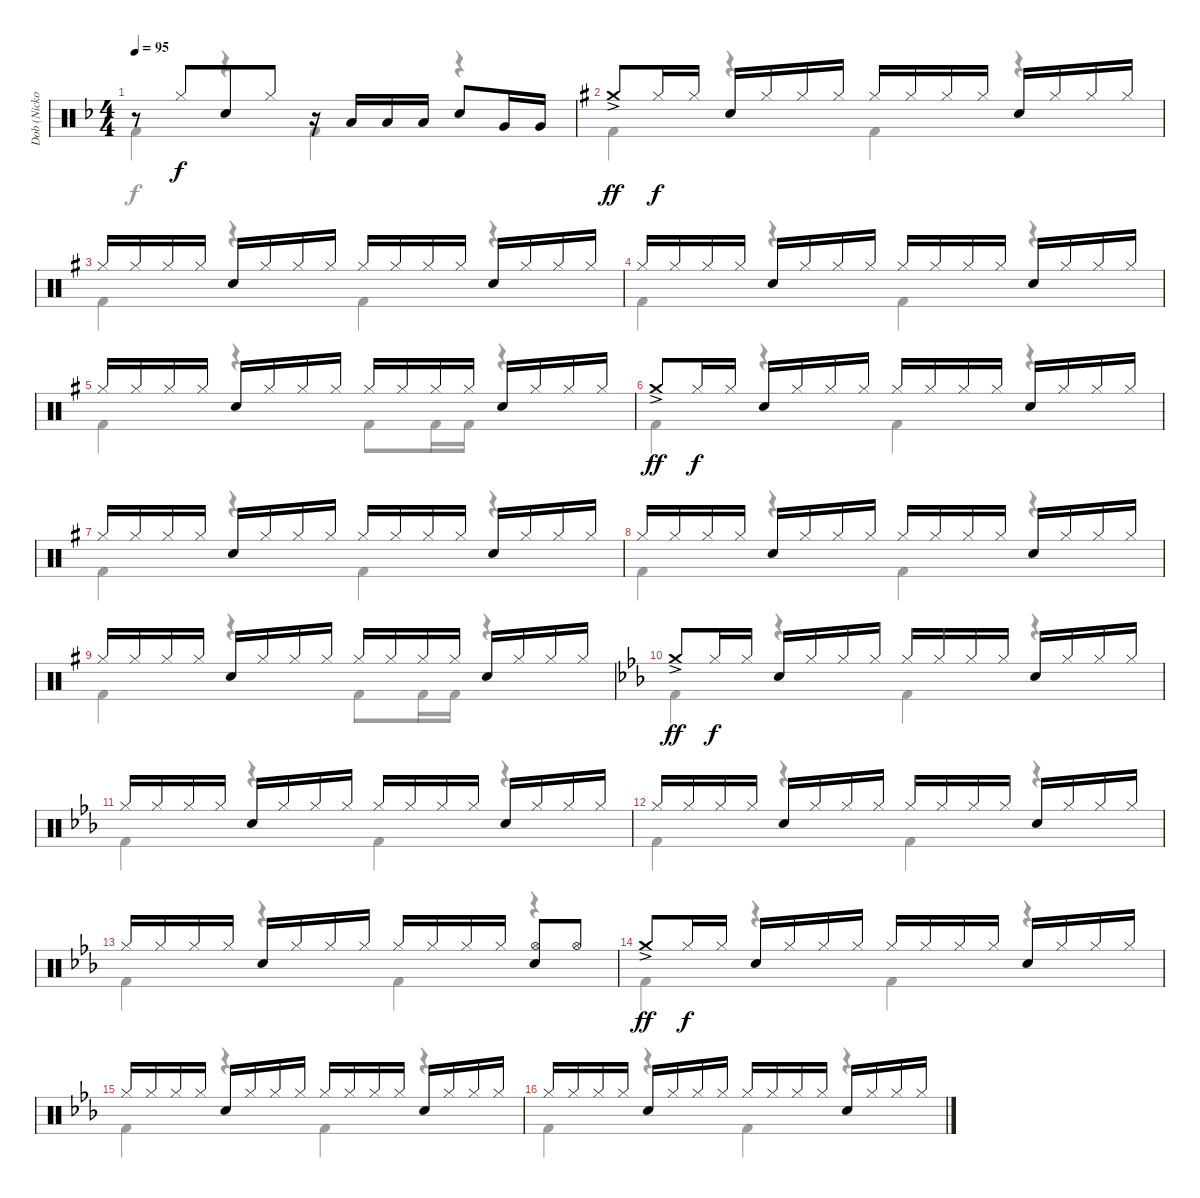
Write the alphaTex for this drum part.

\track ("Dob (Nicko McBrain)" "Dob (Nicko") {instrument percussion}
\staff {score}
\articulation defaults
\voice
\ts (4 4)
\tempo 95
\clef neutral
\ks f
r.8{dy f} "Hi-Hat (closed)".8{beam merge} "Electric Snare (hit)".8 "Hi-Hat (closed)".8 r.16 "Low Tom (hit)".16 "Low Tom (hit)".16 "Low Tom (hit)".16 "Electric Snare (hit)".8 "Very Low Tom (hit)".16 "Very Low Tom (hit)".16 |
\ks g "Crash medium (hit)"{ac}.8{dy ff} "Hi-Hat (closed)".16{dy f} "Hi-Hat (closed)".16 "Electric Snare (hit)".16 "Hi-Hat (closed)".16 "Hi-Hat (closed)".16 "Hi-Hat (closed)".16 "Hi-Hat (closed)".16 "Hi-Hat (closed)".16 "Hi-Hat (closed)".16 "Hi-Hat (closed)".16 "Electric Snare (hit)".16 "Hi-Hat (closed)".16 "Hi-Hat (closed)".16 "Hi-Hat (closed)".16
|
"Hi-Hat (closed)".16 "Hi-Hat (closed)".16 "Hi-Hat (closed)".16 "Hi-Hat (closed)".16 "Electric Snare (hit)".16 "Hi-Hat (closed)".16 "Hi-Hat (closed)".16 "Hi-Hat (closed)".16 "Hi-Hat (closed)".16 "Hi-Hat (closed)".16 "Hi-Hat (closed)".16 "Hi-Hat (closed)".16 "Electric Snare (hit)".16 "Hi-Hat (closed)".16 "Hi-Hat (closed)".16 "Hi-Hat (closed)".16 |
"Hi-Hat (closed)".16 "Hi-Hat (closed)".16 "Hi-Hat (closed)".16 "Hi-Hat (closed)".16 "Electric Snare (hit)".16 "Hi-Hat (closed)".16 "Hi-Hat (closed)".16 "Hi-Hat (closed)".16 "Hi-Hat (closed)".16 "Hi-Hat (closed)".16 "Hi-Hat (closed)".16 "Hi-Hat (closed)".16 "Electric Snare (hit)".16 "Hi-Hat (closed)".16 "Hi-Hat (closed)".16 "Hi-Hat (closed)".16 |
"Hi-Hat (closed)".16 "Hi-Hat (closed)".16 "Hi-Hat (closed)".16 "Hi-Hat (closed)".16 "Electric Snare (hit)".16 "Hi-Hat (closed)".16 "Hi-Hat (closed)".16 "Hi-Hat (closed)".16 "Hi-Hat (closed)".16 "Hi-Hat (closed)".16 "Hi-Hat (closed)".16 "Hi-Hat (closed)".16 "Electric Snare (hit)".16 "Hi-Hat (closed)".16 "Hi-Hat (closed)".16 "Hi-Hat (closed)".16 |
"Crash medium (hit)"{ac}.8{dy ff} "Hi-Hat (closed)".16{dy f} "Hi-Hat (closed)".16 "Electric Snare (hit)".16 "Hi-Hat (closed)".16 "Hi-Hat (closed)".16 "Hi-Hat (closed)".16 "Hi-Hat (closed)".16 "Hi-Hat (closed)".16 "Hi-Hat (closed)".16 "Hi-Hat (closed)".16 "Electric Snare (hit)".16 "Hi-Hat (closed)".16 "Hi-Hat (closed)".16 "Hi-Hat (closed)".16 |
"Hi-Hat (closed)".16 "Hi-Hat (closed)".16 "Hi-Hat (closed)".16 "Hi-Hat (closed)".16 "Electric Snare (hit)".16 "Hi-Hat (closed)".16 "Hi-Hat (closed)".16 "Hi-Hat (closed)".16 "Hi-Hat (closed)".16 "Hi-Hat (closed)".16 "Hi-Hat (closed)".16 "Hi-Hat (closed)".16 "Electric Snare (hit)".16 "Hi-Hat (closed)".16 "Hi-Hat (closed)".16 "Hi-Hat (closed)".16 |
"Hi-Hat (closed)".16 "Hi-Hat (closed)".16 "Hi-Hat (closed)".16 "Hi-Hat (closed)".16 "Electric Snare (hit)".16 "Hi-Hat (closed)".16 "Hi-Hat (closed)".16 "Hi-Hat (closed)".16 "Hi-Hat (closed)".16 "Hi-Hat (closed)".16 "Hi-Hat (closed)".16 "Hi-Hat (closed)".16 "Electric Snare (hit)".16 "Hi-Hat (closed)".16 "Hi-Hat (closed)".16 "Hi-Hat (closed)".16 |
"Hi-Hat (closed)".16 "Hi-Hat (closed)".16 "Hi-Hat (closed)".16 "Hi-Hat (closed)".16 "Electric Snare (hit)".16 "Hi-Hat (closed)".16 "Hi-Hat (closed)".16 "Hi-Hat (closed)".16 "Hi-Hat (closed)".16 "Hi-Hat (closed)".16 "Hi-Hat (closed)".16 "Hi-Hat (closed)".16 "Electric Snare (hit)".16 "Hi-Hat (closed)".16 "Hi-Hat (closed)".16 "Hi-Hat (closed)".16 |
\ks eb "Crash medium (hit)"{ac}.8{dy ff} "Hi-Hat (closed)".16{dy f} "Hi-Hat (closed)".16 "Electric Snare (hit)".16 "Hi-Hat (closed)".16 "Hi-Hat (closed)".16 "Hi-Hat (closed)".16 "Hi-Hat (closed)".16 "Hi-Hat (closed)".16 "Hi-Hat (closed)".16 "Hi-Hat (closed)".16 "Electric Snare (hit)".16 "Hi-Hat (closed)".16 "Hi-Hat (closed)".16 "Hi-Hat (closed)".16
|
"Hi-Hat (closed)".16 "Hi-Hat (closed)".16 "Hi-Hat (closed)".16 "Hi-Hat (closed)".16 "Electric Snare (hit)".16 "Hi-Hat (closed)".16 "Hi-Hat (closed)".16 "Hi-Hat (closed)".16 "Hi-Hat (closed)".16 "Hi-Hat (closed)".16 "Hi-Hat (closed)".16 "Hi-Hat (closed)".16 "Electric Snare (hit)".16 "Hi-Hat (closed)".16 "Hi-Hat (closed)".16 "Hi-Hat (closed)".16 |
"Hi-Hat (closed)".16 "Hi-Hat (closed)".16 "Hi-Hat (closed)".16 "Hi-Hat (closed)".16 "Electric Snare (hit)".16 "Hi-Hat (closed)".16 "Hi-Hat (closed)".16 "Hi-Hat (closed)".16 "Hi-Hat (closed)".16 "Hi-Hat (closed)".16 "Hi-Hat (closed)".16 "Hi-Hat (closed)".16 "Electric Snare (hit)".16 "Hi-Hat (closed)".16 "Hi-Hat (closed)".16 "Hi-Hat (closed)".16 |
"Hi-Hat (closed)".16 "Hi-Hat (closed)".16 "Hi-Hat (closed)".16 "Hi-Hat (closed)".16 "Electric Snare (hit)".16 "Hi-Hat (closed)".16 "Hi-Hat (closed)".16 "Hi-Hat (closed)".16 "Hi-Hat (closed)".16 "Hi-Hat (closed)".16 "Hi-Hat (closed)".16 "Hi-Hat (closed)".16 ("Hi-Hat (open)" "Electric Snare (hit)").8 "Hi-Hat (open)".8 |
"Crash medium (hit)"{ac}.8{dy ff} "Hi-Hat (closed)".16{dy f} "Hi-Hat (closed)".16 "Electric Snare (hit)".16 "Hi-Hat (closed)".16 "Hi-Hat (closed)".16 "Hi-Hat (closed)".16 "Hi-Hat (closed)".16 "Hi-Hat (closed)".16 "Hi-Hat (closed)".16 "Hi-Hat (closed)".16 "Electric Snare (hit)".16 "Hi-Hat (closed)".16 "Hi-Hat (closed)".16 "Hi-Hat (closed)".16 |
"Hi-Hat (closed)".16 "Hi-Hat (closed)".16 "Hi-Hat (closed)".16 "Hi-Hat (closed)".16 "Electric Snare (hit)".16 "Hi-Hat (closed)".16 "Hi-Hat (closed)".16 "Hi-Hat (closed)".16 "Hi-Hat (closed)".16 "Hi-Hat (closed)".16 "Hi-Hat (closed)".16 "Hi-Hat (closed)".16 "Electric Snare (hit)".16 "Hi-Hat (closed)".16 "Hi-Hat (closed)".16 "Hi-Hat (closed)".16 |
"Hi-Hat (closed)".16 "Hi-Hat (closed)".16 "Hi-Hat (closed)".16 "Hi-Hat (closed)".16 "Electric Snare (hit)".16 "Hi-Hat (closed)".16 "Hi-Hat (closed)".16 "Hi-Hat (closed)".16 "Hi-Hat (closed)".16 "Hi-Hat (closed)".16 "Hi-Hat (closed)".16 "Hi-Hat (closed)".16 "Electric Snare (hit)".16 "Hi-Hat (closed)".16 "Hi-Hat (closed)".16 "Hi-Hat (closed)".16
\voice
\clef neutral
\ottava regular
\simile none
\ks f "Kick (hit) 2".4{dy f}
r.4 "Kick (hit) 2".4 r.4 |
\ks g "Kick (hit) 2".4
r.4 "Kick (hit) 2".4 r.4 |
"Kick (hit) 2".4 r.4 "Kick (hit) 2".4 r.4 |
"Kick (hit) 2".4 r.4 "Kick (hit) 2".4 r.4 |
"Kick (hit) 2".4 r.4 "Kick (hit) 2".8 "Kick (hit) 2".16 "Kick (hit) 2".16 r.4 |
"Kick (hit) 2".4 r.4 "Kick (hit) 2".4 r.4 |
"Kick (hit) 2".4 r.4 "Kick (hit) 2".4 r.4 |
"Kick (hit) 2".4 r.4 "Kick (hit) 2".4 r.4 |
"Kick (hit) 2".4 r.4 "Kick (hit) 2".8 "Kick (hit) 2".16 "Kick (hit) 2".16 r.4 |
\ks eb "Kick (hit) 2".4
r.4 "Kick (hit) 2".4 r.4 |
"Kick (hit) 2".4 r.4 "Kick (hit) 2".4 r.4 |
"Kick (hit) 2".4 r.4 "Kick (hit) 2".4 r.4 |
"Kick (hit) 2".4 r.4 "Kick (hit) 2".4 r.4 |
"Kick (hit) 2".4 r.4 "Kick (hit) 2".4 r.4 |
"Kick (hit) 2".4 r.4 "Kick (hit) 2".4 r.4 |
"Kick (hit) 2".4 r.4 "Kick (hit) 2".4 r.4
